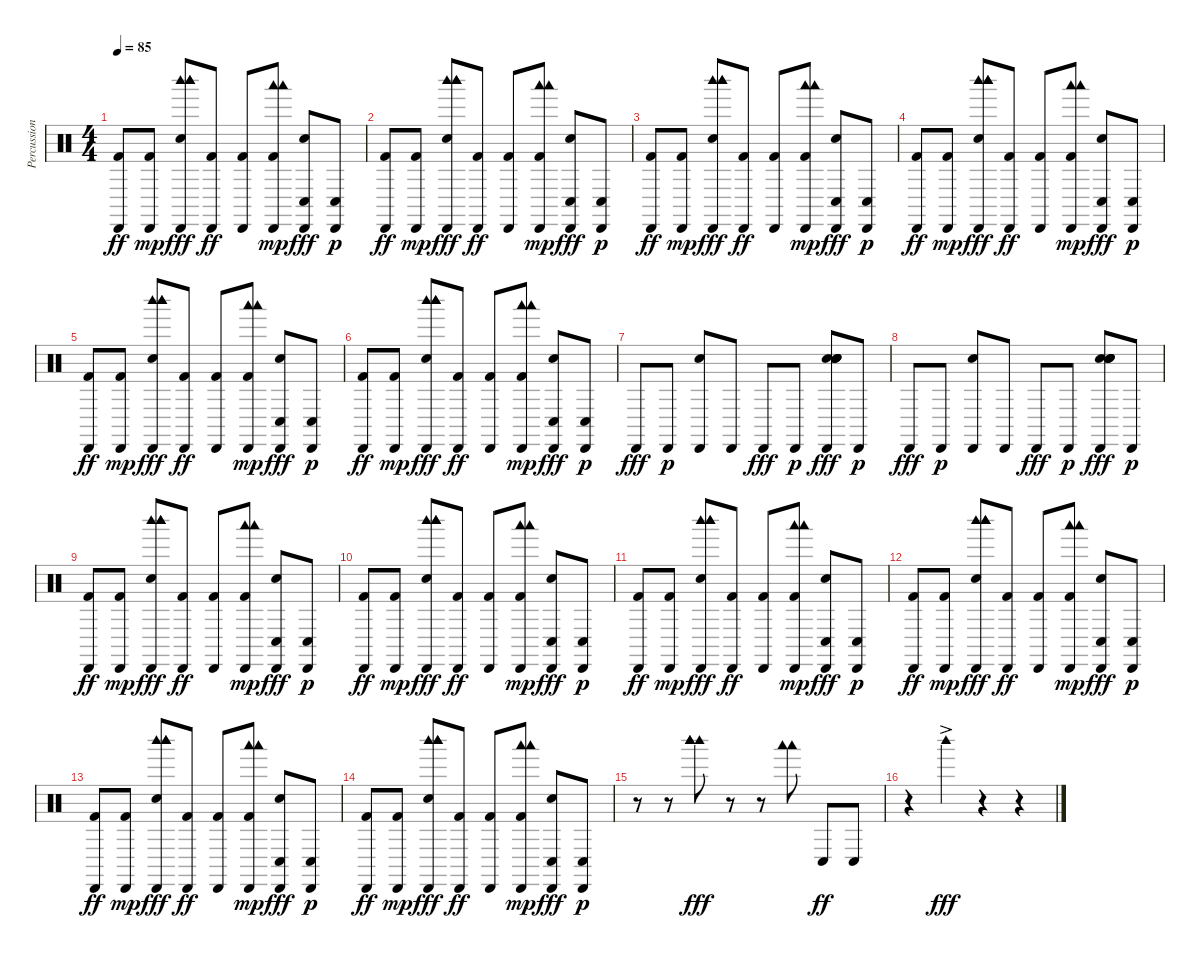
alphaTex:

\track ("Percussion" "Percussion") {instrument percussion}
\staff {score}
\articulation defaults
\ts (4 4)
\tempo 85
\clef neutral
\ks c
("Cabasa (hit)" "Kick (hit) 2").8{dy ff} ("Cabasa (hit)" "Kick (hit) 2").8{dy mp} ("Woodblock high (hit)" "Woodblock high (hit)" "Hand Clap (hit)" "Cabasa (hit)" "Woodblock high (hit)" "Woodblock high (hit)").8{dy fff} ("Cabasa (hit)" "Kick (hit) 2").8{dy ff} ("Cabasa (hit)" "Kick (hit) 2").8 ("Woodblock low (hit)" "Cabasa (hit)" "Woodblock low (hit)" "Kick (hit) 2").8{dy mp} ("Conga low (hit)" "Hand Clap (hit)" "Cabasa (hit)").8{dy fff} ("Conga low (hit)" "Cabasa (hit)").8{dy p} |
("Cabasa (hit)" "Kick (hit) 2").8{dy ff} ("Cabasa (hit)" "Kick (hit) 2").8{dy mp} ("Woodblock high (hit)" "Woodblock high (hit)" "Hand Clap (hit)" "Cabasa (hit)" "Woodblock high (hit)" "Woodblock high (hit)").8{dy fff} ("Cabasa (hit)" "Kick (hit) 2").8{dy ff} ("Cabasa (hit)" "Kick (hit) 2").8 ("Woodblock low (hit)" "Cabasa (hit)" "Woodblock low (hit)" "Kick (hit) 2").8{dy mp} ("Conga low (hit)" "Hand Clap (hit)" "Cabasa (hit)").8{dy fff} ("Conga low (hit)" "Cabasa (hit)").8{dy p} |
("Cabasa (hit)" "Kick (hit) 2").8{dy ff} ("Cabasa (hit)" "Kick (hit) 2").8{dy mp} ("Woodblock high (hit)" "Woodblock high (hit)" "Hand Clap (hit)" "Cabasa (hit)" "Woodblock high (hit)" "Woodblock high (hit)").8{dy fff} ("Cabasa (hit)" "Kick (hit) 2").8{dy ff} ("Cabasa (hit)" "Kick (hit) 2").8 ("Woodblock low (hit)" "Cabasa (hit)" "Woodblock low (hit)" "Kick (hit) 2").8{dy mp} ("Conga low (hit)" "Hand Clap (hit)" "Cabasa (hit)").8{dy fff} ("Conga low (hit)" "Cabasa (hit)").8{dy p} |
("Cabasa (hit)" "Kick (hit) 2").8{dy ff} ("Cabasa (hit)" "Kick (hit) 2").8{dy mp} ("Woodblock high (hit)" "Woodblock high (hit)" "Hand Clap (hit)" "Cabasa (hit)" "Woodblock high (hit)" "Woodblock high (hit)").8{dy fff} ("Cabasa (hit)" "Kick (hit) 2").8{dy ff} ("Cabasa (hit)" "Kick (hit) 2").8 ("Woodblock low (hit)" "Cabasa (hit)" "Woodblock low (hit)" "Kick (hit) 2").8{dy mp} ("Conga low (hit)" "Hand Clap (hit)" "Cabasa (hit)").8{dy fff} ("Conga low (hit)" "Cabasa (hit)").8{dy p} |
("Cabasa (hit)" "Kick (hit) 2").8{dy ff} ("Cabasa (hit)" "Kick (hit) 2").8{dy mp} ("Woodblock high (hit)" "Woodblock high (hit)" "Hand Clap (hit)" "Cabasa (hit)" "Woodblock high (hit)" "Woodblock high (hit)").8{dy fff} ("Cabasa (hit)" "Kick (hit) 2").8{dy ff} ("Cabasa (hit)" "Kick (hit) 2").8 ("Woodblock low (hit)" "Cabasa (hit)" "Woodblock low (hit)" "Kick (hit) 2").8{dy mp} ("Conga low (hit)" "Hand Clap (hit)" "Cabasa (hit)").8{dy fff} ("Conga low (hit)" "Cabasa (hit)").8{dy p} |
("Cabasa (hit)" "Kick (hit) 2").8{dy ff} ("Cabasa (hit)" "Kick (hit) 2").8{dy mp} ("Woodblock high (hit)" "Woodblock high (hit)" "Hand Clap (hit)" "Cabasa (hit)" "Woodblock high (hit)" "Woodblock high (hit)").8{dy fff} ("Cabasa (hit)" "Kick (hit) 2").8{dy ff} ("Cabasa (hit)" "Kick (hit) 2").8 ("Woodblock low (hit)" "Cabasa (hit)" "Woodblock low (hit)" "Kick (hit) 2").8{dy mp} ("Conga low (hit)" "Hand Clap (hit)" "Cabasa (hit)").8{dy fff} ("Conga low (hit)" "Cabasa (hit)").8{dy p} |
"Cabasa (hit)".8{dy fff} "Cabasa (hit)".8{dy p} ("Hand Clap (hit)" "Cabasa (hit)").8 "Cabasa (hit)".8 "Cabasa (hit)".8{dy fff} "Cabasa (hit)".8{dy p} ("Hand Clap (hit)" "Hand Clap (hit)" "Hand Clap (hit)" "Cabasa (hit)" "Hand Clap (hit)").8{dy fff} "Cabasa (hit)".8{dy p} |
"Cabasa (hit)".8{dy fff} "Cabasa (hit)".8{dy p} ("Hand Clap (hit)" "Cabasa (hit)").8 "Cabasa (hit)".8 "Cabasa (hit)".8{dy fff} "Cabasa (hit)".8{dy p} ("Hand Clap (hit)" "Hand Clap (hit)" "Hand Clap (hit)" "Cabasa (hit)" "Hand Clap (hit)").8{dy fff} "Cabasa (hit)".8{dy p} |
("Cabasa (hit)" "Kick (hit) 2").8{dy ff} ("Cabasa (hit)" "Kick (hit) 2").8{dy mp} ("Woodblock high (hit)" "Woodblock high (hit)" "Hand Clap (hit)" "Cabasa (hit)" "Woodblock high (hit)" "Woodblock high (hit)").8{dy fff} ("Cabasa (hit)" "Kick (hit) 2").8{dy ff} ("Cabasa (hit)" "Kick (hit) 2").8 ("Woodblock low (hit)" "Cabasa (hit)" "Woodblock low (hit)" "Kick (hit) 2").8{dy mp} ("Conga low (hit)" "Hand Clap (hit)" "Cabasa (hit)").8{dy fff} ("Conga low (hit)" "Cabasa (hit)").8{dy p} |
("Cabasa (hit)" "Kick (hit) 2").8{dy ff} ("Cabasa (hit)" "Kick (hit) 2").8{dy mp} ("Woodblock high (hit)" "Woodblock high (hit)" "Hand Clap (hit)" "Cabasa (hit)" "Woodblock high (hit)" "Woodblock high (hit)").8{dy fff} ("Cabasa (hit)" "Kick (hit) 2").8{dy ff} ("Cabasa (hit)" "Kick (hit) 2").8 ("Woodblock low (hit)" "Cabasa (hit)" "Woodblock low (hit)" "Kick (hit) 2").8{dy mp} ("Conga low (hit)" "Hand Clap (hit)" "Cabasa (hit)").8{dy fff} ("Conga low (hit)" "Cabasa (hit)").8{dy p} |
("Cabasa (hit)" "Kick (hit) 2").8{dy ff} ("Cabasa (hit)" "Kick (hit) 2").8{dy mp} ("Woodblock high (hit)" "Woodblock high (hit)" "Hand Clap (hit)" "Cabasa (hit)" "Woodblock high (hit)" "Woodblock high (hit)").8{dy fff} ("Cabasa (hit)" "Kick (hit) 2").8{dy ff} ("Cabasa (hit)" "Kick (hit) 2").8 ("Woodblock low (hit)" "Cabasa (hit)" "Woodblock low (hit)" "Kick (hit) 2").8{dy mp} ("Conga low (hit)" "Hand Clap (hit)" "Cabasa (hit)").8{dy fff} ("Conga low (hit)" "Cabasa (hit)").8{dy p} |
("Cabasa (hit)" "Kick (hit) 2").8{dy ff} ("Cabasa (hit)" "Kick (hit) 2").8{dy mp} ("Woodblock high (hit)" "Woodblock high (hit)" "Hand Clap (hit)" "Cabasa (hit)" "Woodblock high (hit)" "Woodblock high (hit)").8{dy fff} ("Cabasa (hit)" "Kick (hit) 2").8{dy ff} ("Cabasa (hit)" "Kick (hit) 2").8 ("Woodblock low (hit)" "Cabasa (hit)" "Woodblock low (hit)" "Kick (hit) 2").8{dy mp} ("Conga low (hit)" "Hand Clap (hit)" "Cabasa (hit)").8{dy fff} ("Conga low (hit)" "Cabasa (hit)").8{dy p} |
("Cabasa (hit)" "Kick (hit) 2").8{dy ff} ("Cabasa (hit)" "Kick (hit) 2").8{dy mp} ("Woodblock high (hit)" "Woodblock high (hit)" "Hand Clap (hit)" "Cabasa (hit)" "Woodblock high (hit)" "Woodblock high (hit)").8{dy fff} ("Cabasa (hit)" "Kick (hit) 2").8{dy ff} ("Cabasa (hit)" "Kick (hit) 2").8 ("Woodblock low (hit)" "Cabasa (hit)" "Woodblock low (hit)" "Kick (hit) 2").8{dy mp} ("Conga low (hit)" "Hand Clap (hit)" "Cabasa (hit)").8{dy fff} ("Conga low (hit)" "Cabasa (hit)").8{dy p} |
("Cabasa (hit)" "Kick (hit) 2").8{dy ff} ("Cabasa (hit)" "Kick (hit) 2").8{dy mp} ("Woodblock high (hit)" "Woodblock high (hit)" "Hand Clap (hit)" "Cabasa (hit)" "Woodblock high (hit)" "Woodblock high (hit)").8{dy fff} ("Cabasa (hit)" "Kick (hit) 2").8{dy ff} ("Cabasa (hit)" "Kick (hit) 2").8 ("Woodblock low (hit)" "Cabasa (hit)" "Woodblock low (hit)" "Kick (hit) 2").8{dy mp} ("Conga low (hit)" "Hand Clap (hit)" "Cabasa (hit)").8{dy fff} ("Conga low (hit)" "Cabasa (hit)").8{dy p} |
r.8 r.8 ("Woodblock high (hit)" "Woodblock high (hit)" "Woodblock high (hit)" "Woodblock high (hit)").8{dy fff} r.8 r.8 ("Woodblock low (hit)" "Woodblock low (hit)").8 "Conga low (hit)".8{dy ff} "Conga low (hit)".8 |
r.4 "Woodblock high (hit)"{ac}.4{dy fff} r.4 r.4
